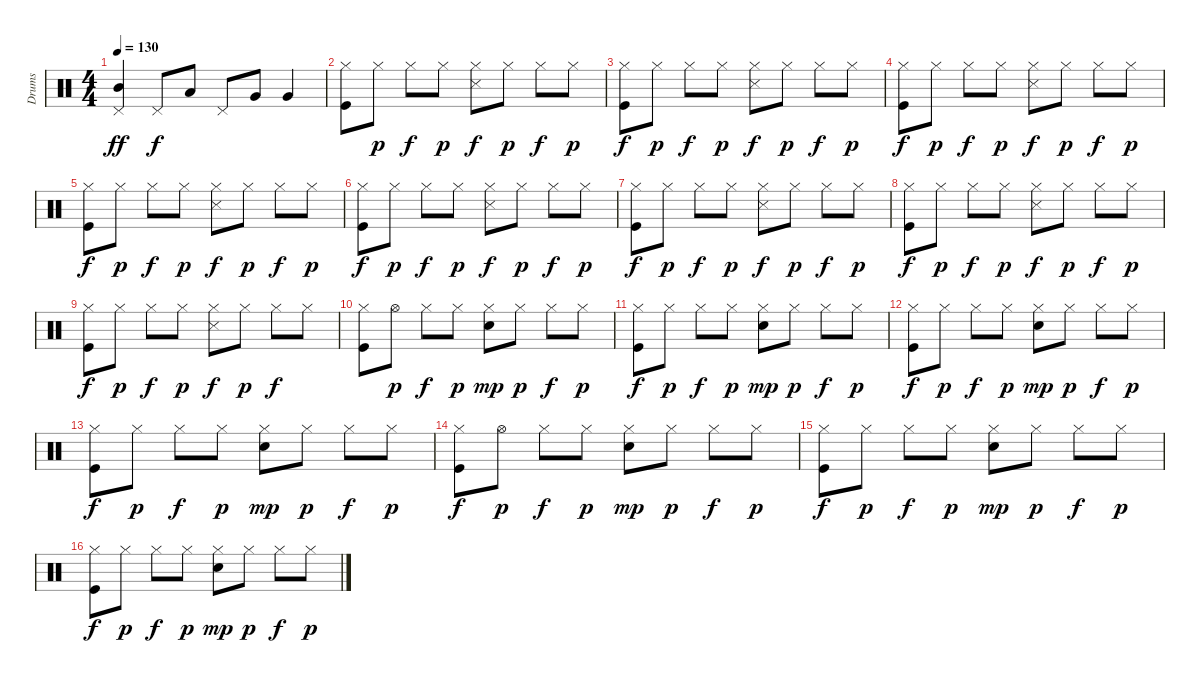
\track ("Drums" "Drums") {instrument percussion}
\staff {score}
\articulation defaults
\ts (4 4)
\tempo 130
\clef neutral
\ks c
("Pedal Hi-Hat (hit)" "Mid Tom (hit)").4{dy ff} "Pedal Hi-Hat (hit)".8{dy f} "Low Tom (hit)".8 "Pedal Hi-Hat (hit)".8 "Very Low Tom (hit)".8 "Very Low Tom (hit)".4 |
("Hi-Hat (closed)" "Kick (hit)").8 "Hi-Hat (closed)".8{dy p} "Hi-Hat (closed)".8{dy f} "Hi-Hat (closed)".8{dy p} ("Hi-Hat (closed)" "Snare (side stick) 3").8{dy f} "Hi-Hat (closed)".8{dy p} "Hi-Hat (closed)".8{dy f} "Hi-Hat (closed)".8{dy p} |
("Hi-Hat (closed)" "Kick (hit)").8{dy f} "Hi-Hat (closed)".8{dy p} "Hi-Hat (closed)".8{dy f} "Hi-Hat (closed)".8{dy p} ("Hi-Hat (closed)" "Snare (side stick) 3").8{dy f} "Hi-Hat (closed)".8{dy p} "Hi-Hat (closed)".8{dy f} "Hi-Hat (closed)".8{dy p} |
("Hi-Hat (closed)" "Kick (hit)").8{dy f} "Hi-Hat (closed)".8{dy p} "Hi-Hat (closed)".8{dy f} "Hi-Hat (closed)".8{dy p} ("Hi-Hat (closed)" "Snare (side stick) 3").8{dy f} "Hi-Hat (closed)".8{dy p} "Hi-Hat (closed)".8{dy f} "Hi-Hat (closed)".8{dy p} |
("Hi-Hat (closed)" "Kick (hit)").8{dy f} "Hi-Hat (closed)".8{dy p} "Hi-Hat (closed)".8{dy f} "Hi-Hat (closed)".8{dy p} ("Hi-Hat (closed)" "Snare (side stick) 3").8{dy f} "Hi-Hat (closed)".8{dy p} "Hi-Hat (closed)".8{dy f} "Hi-Hat (closed)".8{dy p} |
("Hi-Hat (closed)" "Kick (hit)").8{dy f} "Hi-Hat (closed)".8{dy p} "Hi-Hat (closed)".8{dy f} "Hi-Hat (closed)".8{dy p} ("Hi-Hat (closed)" "Snare (side stick) 3").8{dy f} "Hi-Hat (closed)".8{dy p} "Hi-Hat (closed)".8{dy f} "Hi-Hat (closed)".8{dy p} |
("Hi-Hat (closed)" "Kick (hit)").8{dy f} "Hi-Hat (closed)".8{dy p} "Hi-Hat (closed)".8{dy f} "Hi-Hat (closed)".8{dy p} ("Hi-Hat (closed)" "Snare (side stick) 3").8{dy f} "Hi-Hat (closed)".8{dy p} "Hi-Hat (closed)".8{dy f} "Hi-Hat (closed)".8{dy p} |
("Hi-Hat (closed)" "Kick (hit)").8{dy f} "Hi-Hat (closed)".8{dy p} "Hi-Hat (closed)".8{dy f} "Hi-Hat (closed)".8{dy p} ("Hi-Hat (closed)" "Snare (side stick) 3").8{dy f} "Hi-Hat (closed)".8{dy p} "Hi-Hat (closed)".8{dy f} "Hi-Hat (closed)".8{dy p} |
("Hi-Hat (closed)" "Kick (hit)").8{dy f} "Hi-Hat (closed)".8{dy p} "Hi-Hat (closed)".8{dy f} "Hi-Hat (closed)".8{dy p} ("Hi-Hat (closed)" "Snare (side stick) 3").8{dy f} "Hi-Hat (closed)".8{dy p} "Hi-Hat (closed)".8{dy f} "Hi-Hat (closed)".8 |
("Hi-Hat (closed)" "Kick (hit)").8 "Hi-Hat (open)".8{dy p} "Hi-Hat (closed)".8{dy f} "Hi-Hat (closed)".8{dy p} ("Hi-Hat (closed)" "Snare (hit) 2").8{dy mp} "Hi-Hat (closed)".8{dy p} "Hi-Hat (closed)".8{dy f} "Hi-Hat (closed)".8{dy p} |
("Hi-Hat (closed)" "Kick (hit)").8{dy f} "Hi-Hat (closed)".8{dy p} "Hi-Hat (closed)".8{dy f} "Hi-Hat (closed)".8{dy p} ("Hi-Hat (closed)" "Snare (hit) 2").8{dy mp} "Hi-Hat (closed)".8{dy p} "Hi-Hat (closed)".8{dy f} "Hi-Hat (closed)".8{dy p} |
("Hi-Hat (closed)" "Kick (hit)").8{dy f} "Hi-Hat (closed)".8{dy p} "Hi-Hat (closed)".8{dy f} "Hi-Hat (closed)".8{dy p} ("Hi-Hat (closed)" "Snare (hit) 2").8{dy mp} "Hi-Hat (closed)".8{dy p} "Hi-Hat (closed)".8{dy f} "Hi-Hat (closed)".8{dy p} |
("Hi-Hat (closed)" "Kick (hit)").8{dy f} "Hi-Hat (closed)".8{dy p} "Hi-Hat (closed)".8{dy f} "Hi-Hat (closed)".8{dy p} ("Hi-Hat (closed)" "Snare (hit) 2").8{dy mp} "Hi-Hat (closed)".8{dy p} "Hi-Hat (closed)".8{dy f} "Hi-Hat (closed)".8{dy p} |
("Hi-Hat (closed)" "Kick (hit)").8{dy f} "Hi-Hat (open)".8{dy p} "Hi-Hat (closed)".8{dy f} "Hi-Hat (closed)".8{dy p} ("Hi-Hat (closed)" "Snare (hit) 2").8{dy mp} "Hi-Hat (closed)".8{dy p} "Hi-Hat (closed)".8{dy f} "Hi-Hat (closed)".8{dy p} |
("Hi-Hat (closed)" "Kick (hit)").8{dy f} "Hi-Hat (closed)".8{dy p} "Hi-Hat (closed)".8{dy f} "Hi-Hat (closed)".8{dy p} ("Hi-Hat (closed)" "Snare (hit) 2").8{dy mp} "Hi-Hat (closed)".8{dy p} "Hi-Hat (closed)".8{dy f} "Hi-Hat (closed)".8{dy p} |
("Hi-Hat (closed)" "Kick (hit)").8{dy f} "Hi-Hat (closed)".8{dy p} "Hi-Hat (closed)".8{dy f} "Hi-Hat (closed)".8{dy p} ("Hi-Hat (closed)" "Snare (hit) 2").8{dy mp} "Hi-Hat (closed)".8{dy p} "Hi-Hat (closed)".8{dy f} "Hi-Hat (closed)".8{dy p}
